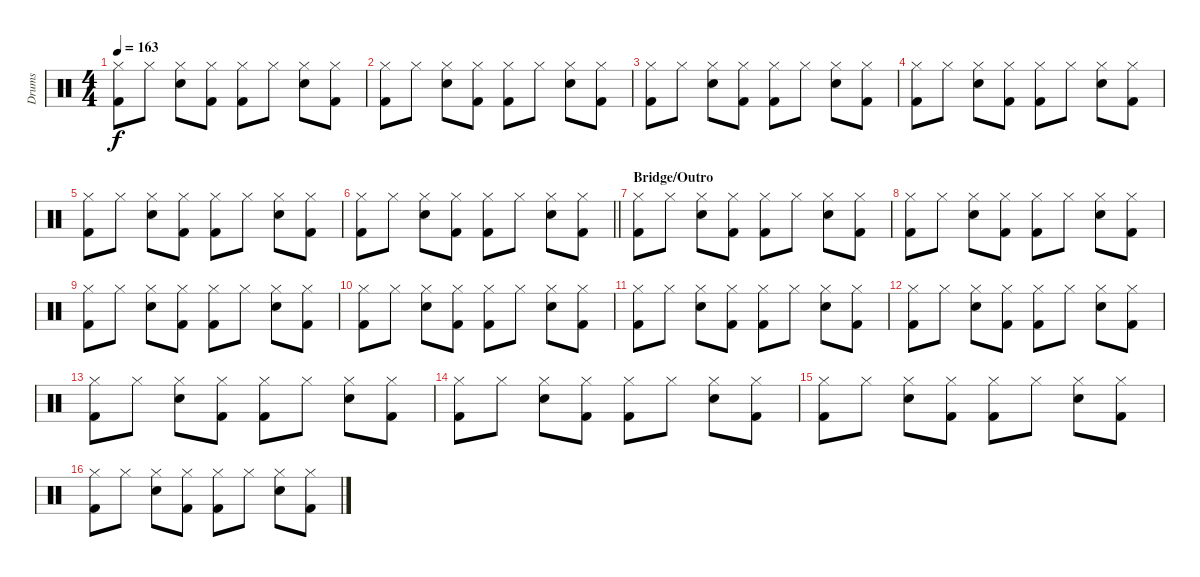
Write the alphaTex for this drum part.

\track ("Drums" "Drums") {instrument percussion}
\staff {score}
\articulation defaults
\ts (4 4)
\tempo 163
\clef neutral
\ks c
("Hi-Hat (closed)" "Kick (hit) 2").8{dy f} "Hi-Hat (closed)".8 ("Hi-Hat (closed)" "Snare (hit) 2").8 ("Hi-Hat (closed)" "Kick (hit) 2").8 ("Hi-Hat (closed)" "Kick (hit) 2").8 "Hi-Hat (closed)".8 ("Hi-Hat (closed)" "Snare (hit) 2").8 ("Hi-Hat (closed)" "Kick (hit) 2").8 |
("Hi-Hat (closed)" "Kick (hit) 2").8 "Hi-Hat (closed)".8 ("Hi-Hat (closed)" "Snare (hit) 2").8 ("Hi-Hat (closed)" "Kick (hit) 2").8 ("Hi-Hat (closed)" "Kick (hit) 2").8 "Hi-Hat (closed)".8 ("Hi-Hat (closed)" "Snare (hit) 2").8 ("Hi-Hat (closed)" "Kick (hit) 2").8 |
("Hi-Hat (closed)" "Kick (hit) 2").8 "Hi-Hat (closed)".8 ("Hi-Hat (closed)" "Snare (hit) 2").8 ("Hi-Hat (closed)" "Kick (hit) 2").8 ("Hi-Hat (closed)" "Kick (hit) 2").8 "Hi-Hat (closed)".8 ("Hi-Hat (closed)" "Snare (hit) 2").8 ("Hi-Hat (closed)" "Kick (hit) 2").8 |
("Hi-Hat (closed)" "Kick (hit) 2").8 "Hi-Hat (closed)".8 ("Hi-Hat (closed)" "Snare (hit) 2").8 ("Hi-Hat (closed)" "Kick (hit) 2").8 ("Hi-Hat (closed)" "Kick (hit) 2").8 "Hi-Hat (closed)".8 ("Hi-Hat (closed)" "Snare (hit) 2").8 ("Hi-Hat (closed)" "Kick (hit) 2").8 |
("Hi-Hat (closed)" "Kick (hit) 2").8 "Hi-Hat (closed)".8 ("Hi-Hat (closed)" "Snare (hit) 2").8 ("Hi-Hat (closed)" "Kick (hit) 2").8 ("Hi-Hat (closed)" "Kick (hit) 2").8 "Hi-Hat (closed)".8 ("Hi-Hat (closed)" "Snare (hit) 2").8 ("Hi-Hat (closed)" "Kick (hit) 2").8 |
\barLineRight lightlight
("Hi-Hat (closed)" "Kick (hit) 2").8 "Hi-Hat (closed)".8 ("Hi-Hat (closed)" "Snare (hit) 2").8 ("Hi-Hat (closed)" "Kick (hit) 2").8 ("Hi-Hat (closed)" "Kick (hit) 2").8 "Hi-Hat (closed)".8 ("Hi-Hat (closed)" "Snare (hit) 2").8 ("Hi-Hat (closed)" "Kick (hit) 2").8 |
\section ("" "Bridge/Outro")
("Hi-Hat (closed)" "Kick (hit) 2").8 "Hi-Hat (closed)".8 ("Hi-Hat (closed)" "Snare (hit) 2").8 ("Hi-Hat (closed)" "Kick (hit) 2").8 ("Hi-Hat (closed)" "Kick (hit) 2").8 "Hi-Hat (closed)".8 ("Hi-Hat (closed)" "Snare (hit) 2").8 ("Hi-Hat (closed)" "Kick (hit) 2").8 |
("Hi-Hat (closed)" "Kick (hit) 2").8 "Hi-Hat (closed)".8 ("Hi-Hat (closed)" "Snare (hit) 2").8 ("Hi-Hat (closed)" "Kick (hit) 2").8 ("Hi-Hat (closed)" "Kick (hit) 2").8 "Hi-Hat (closed)".8 ("Hi-Hat (closed)" "Snare (hit) 2").8 ("Hi-Hat (closed)" "Kick (hit) 2").8 |
("Hi-Hat (closed)" "Kick (hit) 2").8 "Hi-Hat (closed)".8 ("Hi-Hat (closed)" "Snare (hit) 2").8 ("Hi-Hat (closed)" "Kick (hit) 2").8 ("Hi-Hat (closed)" "Kick (hit) 2").8 "Hi-Hat (closed)".8 ("Hi-Hat (closed)" "Snare (hit) 2").8 ("Hi-Hat (closed)" "Kick (hit) 2").8 |
("Hi-Hat (closed)" "Kick (hit) 2").8 "Hi-Hat (closed)".8 ("Hi-Hat (closed)" "Snare (hit) 2").8 ("Hi-Hat (closed)" "Kick (hit) 2").8 ("Hi-Hat (closed)" "Kick (hit) 2").8 "Hi-Hat (closed)".8 ("Hi-Hat (closed)" "Snare (hit) 2").8 ("Hi-Hat (closed)" "Kick (hit) 2").8 |
("Hi-Hat (closed)" "Kick (hit) 2").8 "Hi-Hat (closed)".8 ("Hi-Hat (closed)" "Snare (hit) 2").8 ("Hi-Hat (closed)" "Kick (hit) 2").8 ("Hi-Hat (closed)" "Kick (hit) 2").8 "Hi-Hat (closed)".8 ("Hi-Hat (closed)" "Snare (hit) 2").8 ("Hi-Hat (closed)" "Kick (hit) 2").8 |
("Hi-Hat (closed)" "Kick (hit) 2").8 "Hi-Hat (closed)".8 ("Hi-Hat (closed)" "Snare (hit) 2").8 ("Hi-Hat (closed)" "Kick (hit) 2").8 ("Hi-Hat (closed)" "Kick (hit) 2").8 "Hi-Hat (closed)".8 ("Hi-Hat (closed)" "Snare (hit) 2").8 ("Hi-Hat (closed)" "Kick (hit) 2").8 |
("Hi-Hat (closed)" "Kick (hit) 2").8 "Hi-Hat (closed)".8 ("Hi-Hat (closed)" "Snare (hit) 2").8 ("Hi-Hat (closed)" "Kick (hit) 2").8 ("Hi-Hat (closed)" "Kick (hit) 2").8 "Hi-Hat (closed)".8 ("Hi-Hat (closed)" "Snare (hit) 2").8 ("Hi-Hat (closed)" "Kick (hit) 2").8 |
("Hi-Hat (closed)" "Kick (hit) 2").8 "Hi-Hat (closed)".8 ("Hi-Hat (closed)" "Snare (hit) 2").8 ("Hi-Hat (closed)" "Kick (hit) 2").8 ("Hi-Hat (closed)" "Kick (hit) 2").8 "Hi-Hat (closed)".8 ("Hi-Hat (closed)" "Snare (hit) 2").8 ("Hi-Hat (closed)" "Kick (hit) 2").8 |
("Hi-Hat (closed)" "Kick (hit) 2").8 "Hi-Hat (closed)".8 ("Hi-Hat (closed)" "Snare (hit) 2").8 ("Hi-Hat (closed)" "Kick (hit) 2").8 ("Hi-Hat (closed)" "Kick (hit) 2").8 "Hi-Hat (closed)".8 ("Hi-Hat (closed)" "Snare (hit) 2").8 ("Hi-Hat (closed)" "Kick (hit) 2").8 |
("Hi-Hat (closed)" "Kick (hit) 2").8 "Hi-Hat (closed)".8 ("Hi-Hat (closed)" "Snare (hit) 2").8 ("Hi-Hat (closed)" "Kick (hit) 2").8 ("Hi-Hat (closed)" "Kick (hit) 2").8 "Hi-Hat (closed)".8 ("Hi-Hat (closed)" "Snare (hit) 2").8 ("Hi-Hat (closed)" "Kick (hit) 2").8
